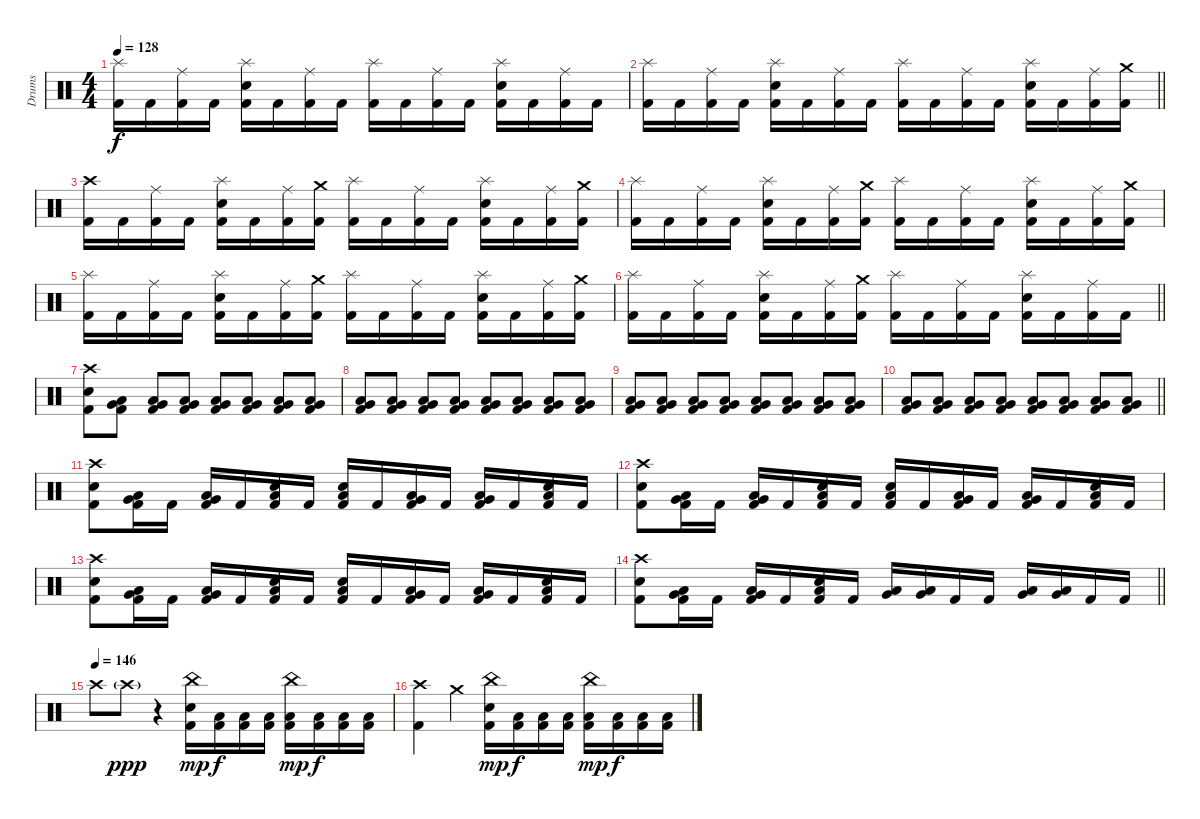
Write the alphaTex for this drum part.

\track ("Drums" "Drums") {instrument percussion}
\staff {score}
\articulation defaults
\ts (4 4)
\tempo 128
\clef neutral
\ks c
("Splash (hit)" "Kick (hit) 2").16{dy f} "Kick (hit) 2".16 ("Ride (middle)" "Kick (hit) 2").16 "Kick (hit) 2".16 ("Splash (hit)" "Electric Snare (hit)" "Kick (hit) 2").16 "Kick (hit) 2".16 ("Ride (middle)" "Kick (hit) 2").16 "Kick (hit) 2".16 ("Splash (hit)" "Kick (hit) 2").16 "Kick (hit) 2".16 ("Ride (middle)" "Kick (hit) 2").16 "Kick (hit) 2".16 ("Splash (hit)" "Electric Snare (hit)" "Kick (hit) 2").16 "Kick (hit) 2".16 ("Ride (middle)" "Kick (hit) 2").16 "Kick (hit) 2".16 |
\barLineRight lightlight
("Splash (hit)" "Kick (hit) 2").16 "Kick (hit) 2".16 ("Ride (middle)" "Kick (hit) 2").16 "Kick (hit) 2".16 ("Splash (hit)" "Electric Snare (hit)" "Kick (hit) 2").16 "Kick (hit) 2".16 ("Ride (middle)" "Kick (hit) 2").16 "Kick (hit) 2".16 ("Splash (hit)" "Kick (hit) 2").16 "Kick (hit) 2".16 ("Ride (middle)" "Kick (hit) 2").16 "Kick (hit) 2".16 ("Splash (hit)" "Electric Snare (hit)" "Kick (hit) 2").16 "Kick (hit) 2".16 ("Ride (middle)" "Kick (hit) 2").16 ("Crash medium (hit)" "Kick (hit) 2").16 |
("Crash high (hit)" "Kick (hit) 2").16 "Kick (hit) 2".16 ("Ride (middle)" "Kick (hit) 2").16 "Kick (hit) 2".16 ("Splash (hit)" "Electric Snare (hit)" "Kick (hit) 2").16 "Kick (hit) 2".16 ("Ride (middle)" "Kick (hit) 2").16 ("Crash medium (hit)" "Kick (hit) 2").16 ("Splash (hit)" "Kick (hit) 2").16 "Kick (hit) 2".16 ("Ride (middle)" "Kick (hit) 2").16 "Kick (hit) 2".16 ("Splash (hit)" "Electric Snare (hit)" "Kick (hit) 2").16 "Kick (hit) 2".16 ("Ride (middle)" "Kick (hit) 2").16 ("Crash medium (hit)" "Kick (hit) 2").16 |
("Splash (hit)" "Kick (hit) 2").16 "Kick (hit) 2".16 ("Ride (middle)" "Kick (hit) 2").16 "Kick (hit) 2".16 ("Splash (hit)" "Electric Snare (hit)" "Kick (hit) 2").16 "Kick (hit) 2".16 ("Ride (middle)" "Kick (hit) 2").16 ("Crash medium (hit)" "Kick (hit) 2").16 ("Splash (hit)" "Kick (hit) 2").16 "Kick (hit) 2".16 ("Ride (middle)" "Kick (hit) 2").16 "Kick (hit) 2".16 ("Splash (hit)" "Electric Snare (hit)" "Kick (hit) 2").16 "Kick (hit) 2".16 ("Ride (middle)" "Kick (hit) 2").16 ("Crash medium (hit)" "Kick (hit) 2").16 |
("Splash (hit)" "Kick (hit) 2").16 "Kick (hit) 2".16 ("Ride (middle)" "Kick (hit) 2").16 "Kick (hit) 2".16 ("Splash (hit)" "Electric Snare (hit)" "Kick (hit) 2").16 "Kick (hit) 2".16 ("Ride (middle)" "Kick (hit) 2").16 ("Crash medium (hit)" "Kick (hit) 2").16 ("Splash (hit)" "Kick (hit) 2").16 "Kick (hit) 2".16 ("Ride (middle)" "Kick (hit) 2").16 "Kick (hit) 2".16 ("Splash (hit)" "Electric Snare (hit)" "Kick (hit) 2").16 "Kick (hit) 2".16 ("Ride (middle)" "Kick (hit) 2").16 ("Crash medium (hit)" "Kick (hit) 2").16 |
\barLineRight lightlight
("Splash (hit)" "Kick (hit) 2").16 "Kick (hit) 2".16 ("Ride (middle)" "Kick (hit) 2").16 "Kick (hit) 2".16 ("Splash (hit)" "Electric Snare (hit)" "Kick (hit) 2").16 "Kick (hit) 2".16 ("Ride (middle)" "Kick (hit) 2").16 ("Crash medium (hit)" "Kick (hit) 2").16 ("Splash (hit)" "Kick (hit) 2").16 "Kick (hit) 2".16 ("Ride (middle)" "Kick (hit) 2").16 "Kick (hit) 2".16 ("Splash (hit)" "Electric Snare (hit)" "Kick (hit) 2").16 "Kick (hit) 2".16 ("Ride (middle)" "Kick (hit) 2").16 "Kick (hit) 2".16 |
("Crash high (hit)" "Electric Snare (hit)" "Kick (hit) 2").8 ("Very Low Tom (hit)" "Low Floor Tom (hit)" "Kick (hit) 2").8 ("Very Low Tom (hit)" "Low Floor Tom (hit)" "Kick (hit) 2").8 ("Very Low Tom (hit)" "Low Floor Tom (hit)" "Kick (hit) 2").8 ("Very Low Tom (hit)" "Low Floor Tom (hit)" "Kick (hit) 2").8 ("Very Low Tom (hit)" "Low Floor Tom (hit)" "Kick (hit) 2").8 ("Very Low Tom (hit)" "Low Floor Tom (hit)" "Kick (hit) 2").8 ("Very Low Tom (hit)" "Low Floor Tom (hit)" "Kick (hit) 2").8 |
("Very Low Tom (hit)" "Low Floor Tom (hit)" "Kick (hit) 2").8 ("Very Low Tom (hit)" "Low Floor Tom (hit)" "Kick (hit) 2").8 ("Very Low Tom (hit)" "Low Floor Tom (hit)" "Kick (hit) 2").8 ("Very Low Tom (hit)" "Low Floor Tom (hit)" "Kick (hit) 2").8 ("Very Low Tom (hit)" "Low Floor Tom (hit)" "Kick (hit) 2").8 ("Very Low Tom (hit)" "Low Floor Tom (hit)" "Kick (hit) 2").8 ("Very Low Tom (hit)" "Low Floor Tom (hit)" "Kick (hit) 2").8 ("Very Low Tom (hit)" "Low Floor Tom (hit)" "Kick (hit) 2").8 |
("Very Low Tom (hit)" "Low Floor Tom (hit)" "Kick (hit) 2").8 ("Very Low Tom (hit)" "Low Floor Tom (hit)" "Kick (hit) 2").8 ("Very Low Tom (hit)" "Low Floor Tom (hit)" "Kick (hit) 2").8 ("Very Low Tom (hit)" "Low Floor Tom (hit)" "Kick (hit) 2").8 ("Very Low Tom (hit)" "Low Floor Tom (hit)" "Kick (hit) 2").8 ("Very Low Tom (hit)" "Low Floor Tom (hit)" "Kick (hit) 2").8 ("Very Low Tom (hit)" "Low Floor Tom (hit)" "Kick (hit) 2").8 ("Very Low Tom (hit)" "Low Floor Tom (hit)" "Kick (hit) 2").8 |
\barLineRight lightlight
("Very Low Tom (hit)" "Low Floor Tom (hit)" "Kick (hit) 2").8 ("Very Low Tom (hit)" "Low Floor Tom (hit)" "Kick (hit) 2").8 ("Very Low Tom (hit)" "Low Floor Tom (hit)" "Kick (hit) 2").8 ("Very Low Tom (hit)" "Low Floor Tom (hit)" "Kick (hit) 2").8 ("Very Low Tom (hit)" "Low Floor Tom (hit)" "Kick (hit) 2").8 ("Very Low Tom (hit)" "Low Floor Tom (hit)" "Kick (hit) 2").8 ("Very Low Tom (hit)" "Low Floor Tom (hit)" "Kick (hit) 2").8 ("Very Low Tom (hit)" "Low Floor Tom (hit)" "Kick (hit) 2").8 |
("Crash high (hit)" "Electric Snare (hit)" "Kick (hit) 2").8 ("Very Low Tom (hit)" "Low Floor Tom (hit)" "Kick (hit) 2").16 "Kick (hit) 2".16 ("Very Low Tom (hit)" "Low Floor Tom (hit)" "Kick (hit) 2").16 "Kick (hit) 2".16 ("Electric Snare (hit)" "Low Floor Tom (hit)" "Kick (hit) 2").16 "Kick (hit) 2".16 ("Electric Snare (hit)" "Low Floor Tom (hit)" "Kick (hit) 2").16 "Kick (hit) 2".16 ("Very Low Tom (hit)" "Low Floor Tom (hit)" "Kick (hit) 2").16 "Kick (hit) 2".16 ("Very Low Tom (hit)" "Low Floor Tom (hit)" "Kick (hit) 2").16 "Kick (hit) 2".16 ("Electric Snare (hit)" "Low Floor Tom (hit)" "Kick (hit) 2").16 "Kick (hit) 2".16 |
("Crash high (hit)" "Electric Snare (hit)" "Kick (hit) 2").8 ("Very Low Tom (hit)" "Low Floor Tom (hit)" "Kick (hit) 2").16 "Kick (hit) 2".16 ("Very Low Tom (hit)" "Low Floor Tom (hit)" "Kick (hit) 2").16 "Kick (hit) 2".16 ("Electric Snare (hit)" "Low Floor Tom (hit)" "Kick (hit) 2").16 "Kick (hit) 2".16 ("Electric Snare (hit)" "Low Floor Tom (hit)" "Kick (hit) 2").16 "Kick (hit) 2".16 ("Very Low Tom (hit)" "Low Floor Tom (hit)" "Kick (hit) 2").16 "Kick (hit) 2".16 ("Very Low Tom (hit)" "Low Floor Tom (hit)" "Kick (hit) 2").16 "Kick (hit) 2".16 ("Electric Snare (hit)" "Low Floor Tom (hit)" "Kick (hit) 2").16 "Kick (hit) 2".16 |
("Crash high (hit)" "Electric Snare (hit)" "Kick (hit) 2").8 ("Very Low Tom (hit)" "Low Floor Tom (hit)" "Kick (hit) 2").16 "Kick (hit) 2".16 ("Very Low Tom (hit)" "Low Floor Tom (hit)" "Kick (hit) 2").16 "Kick (hit) 2".16 ("Electric Snare (hit)" "Low Floor Tom (hit)" "Kick (hit) 2").16 "Kick (hit) 2".16 ("Electric Snare (hit)" "Low Floor Tom (hit)" "Kick (hit) 2").16 "Kick (hit) 2".16 ("Very Low Tom (hit)" "Low Floor Tom (hit)" "Kick (hit) 2").16 "Kick (hit) 2".16 ("Very Low Tom (hit)" "Low Floor Tom (hit)" "Kick (hit) 2").16 "Kick (hit) 2".16 ("Electric Snare (hit)" "Low Floor Tom (hit)" "Kick (hit) 2").16 "Kick (hit) 2".16 |
\barLineRight lightlight
("Crash high (hit)" "Electric Snare (hit)" "Kick (hit) 2").8 ("Very Low Tom (hit)" "Low Floor Tom (hit)" "Kick (hit) 2").16 "Kick (hit) 2".16 ("Very Low Tom (hit)" "Low Floor Tom (hit)" "Kick (hit) 2").16 "Kick (hit) 2".16 ("Electric Snare (hit)" "Low Floor Tom (hit)" "Kick (hit) 2").16 "Kick (hit) 2".16 ("Very Low Tom (hit)" "Low Floor Tom (hit)").16 ("Low Tom (hit)" "Very Low Tom (hit)").16 "Kick (hit) 2".16 "Kick (hit) 2".16 ("Very Low Tom (hit)" "Low Floor Tom (hit)").16 ("Low Tom (hit)" "Very Low Tom (hit)").16 "Kick (hit) 2".16 "Kick (hit) 2".16 |
\tempo (146)
"Crash high (hit)".8 "Crash high (hit)"{g}.8{dy ppp} r.4 ("China (hit)" "Electric Snare (hit)" "Kick (hit) 2").16{dy mp} ("Low Floor Tom (hit)" "Kick (hit) 2").16{dy f} ("Low Floor Tom (hit)" "Kick (hit) 2").16 ("Low Floor Tom (hit)" "Kick (hit) 2").16 ("China (hit)" "Low Floor Tom (hit)" "Kick (hit) 2").16{dy mp} ("Low Floor Tom (hit)" "Kick (hit) 2").16{dy f} ("Low Floor Tom (hit)" "Kick (hit) 2").16 ("Low Floor Tom (hit)" "Kick (hit) 2").16 |
("Crash high (hit)" "Kick (hit) 2").4 "Crash medium (hit)".4 ("China (hit)" "Electric Snare (hit)" "Kick (hit) 2").16{dy mp} ("Low Floor Tom (hit)" "Kick (hit) 2").16{dy f} ("Low Floor Tom (hit)" "Kick (hit) 2").16 ("Low Floor Tom (hit)" "Kick (hit) 2").16 ("China (hit)" "Low Floor Tom (hit)" "Kick (hit) 2").16{dy mp} ("Low Floor Tom (hit)" "Kick (hit) 2").16{dy f} ("Low Floor Tom (hit)" "Kick (hit) 2").16 ("Low Floor Tom (hit)" "Kick (hit) 2").16
